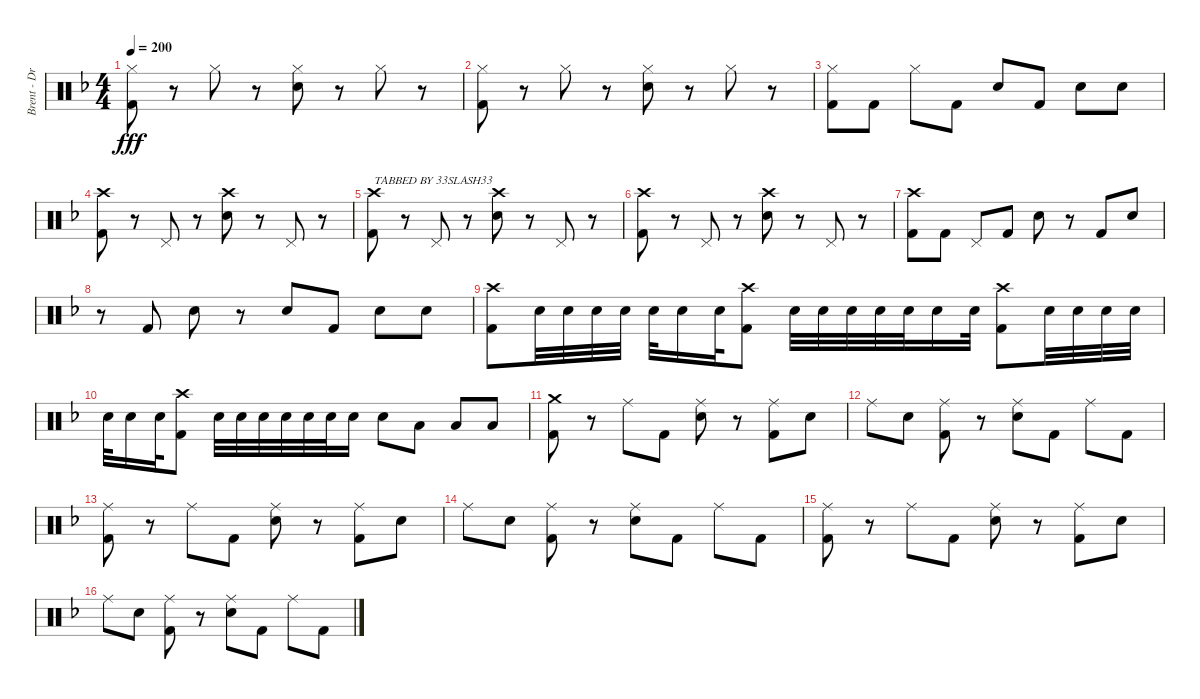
\track ("Brent - Drums" "Brent - Dr") {instrument percussion}
\staff {score}
\articulation defaults
\ts (4 4)
\tempo 200
\clef neutral
\ks dminor
("Hi-Hat (closed)" "Kick (hit) 2").8{dy fff} r.8 "Hi-Hat (closed)".8 r.8 ("Hi-Hat (closed)" "Snare (hit) 2").8 r.8 "Hi-Hat (closed)".8 r.8 |
("Hi-Hat (closed)" "Kick (hit) 2").8 r.8 "Hi-Hat (closed)".8 r.8 ("Hi-Hat (closed)" "Snare (hit) 2").8 r.8 "Hi-Hat (closed)".8 r.8 |
("Hi-Hat (closed)" "Kick (hit) 2").8 "Kick (hit) 2".8 "Hi-Hat (closed)".8 "Kick (hit) 2".8 "Snare (hit) 2".8 "Kick (hit) 2".8 "Snare (hit) 2".8 "Snare (hit) 2".8 |
("Crash high (hit)" "Kick (hit) 2").8 r.8 "Pedal Hi-Hat (hit)".8 r.8 ("Crash high (hit)" "Snare (hit) 2").8 r.8 "Pedal Hi-Hat (hit)".8 r.8 |
("Crash high (hit)" "Kick (hit) 2").8{txt "TABBED BY 33SLASH33"} r.8 "Pedal Hi-Hat (hit)".8 r.8 ("Crash high (hit)" "Snare (hit) 2").8 r.8 "Pedal Hi-Hat (hit)".8 r.8 |
("Crash high (hit)" "Kick (hit) 2").8 r.8 "Pedal Hi-Hat (hit)".8 r.8 ("Crash high (hit)" "Snare (hit) 2").8 r.8 "Pedal Hi-Hat (hit)".8 r.8 |
("Crash high (hit)" "Kick (hit) 2").8 "Kick (hit) 2".8 "Pedal Hi-Hat (hit)".8 "Kick (hit) 2".8 "Snare (hit) 2".8 r.8 "Kick (hit) 2".8 "Snare (hit) 2".8 |
r.8 "Kick (hit) 2".8 "Snare (hit) 2".8 r.8 "Snare (hit) 2".8 "Kick (hit) 2".8 "Snare (hit) 2".8 "Snare (hit) 2".8 |
("Crash high (hit)" "Kick (hit) 2").8 "Snare (hit) 2".32 "Snare (hit) 2".32 "Snare (hit) 2".32 "Snare (hit) 2".32 "Snare (hit) 2".32 "Snare (hit) 2".16 "Snare (hit) 2".32 ("Crash high (hit)" "Kick (hit) 2").8 "Snare (hit) 2".32 "Snare (hit) 2".32 "Snare (hit) 2".32 "Snare (hit) 2".32 "Snare (hit) 2".32 "Snare (hit) 2".16 "Snare (hit) 2".32 ("Crash high (hit)" "Kick (hit) 2").8 "Snare (hit) 2".32 "Snare (hit) 2".32 "Snare (hit) 2".32 "Snare (hit) 2".32 |
"Snare (hit) 2".32 "Snare (hit) 2".16 "Snare (hit) 2".32 ("Crash high (hit)" "Kick (hit) 2").8 "Snare (hit) 2".32 "Snare (hit) 2".32 "Snare (hit) 2".32 "Snare (hit) 2".32 "Snare (hit) 2".32 "Snare (hit) 2".32 "Snare (hit) 2".16 "Snare (hit) 2".8 "Low Tom (hit)".8 "Low Floor Tom (hit)".8 "Low Floor Tom (hit)".8 |
("Crash medium (hit)" "Kick (hit) 2").8 r.8 "Ride (middle)".8 "Kick (hit) 2".8 ("Ride (middle)" "Snare (hit) 2").8 r.8 ("Ride (middle)" "Kick (hit) 2").8 "Snare (hit) 2".8 |
"Ride (middle)".8 "Snare (hit) 2".8 ("Ride (middle)" "Kick (hit) 2").8 r.8 ("Ride (middle)" "Snare (hit) 2").8 "Kick (hit) 2".8 "Ride (middle)".8 "Kick (hit) 2".8 |
("Ride (middle)" "Kick (hit) 2").8 r.8 "Ride (middle)".8 "Kick (hit) 2".8 ("Ride (middle)" "Snare (hit) 2").8 r.8 ("Ride (middle)" "Kick (hit) 2").8 "Snare (hit) 2".8 |
"Ride (middle)".8 "Snare (hit) 2".8 ("Ride (middle)" "Kick (hit) 2").8 r.8 ("Ride (middle)" "Snare (hit) 2").8 "Kick (hit) 2".8 "Ride (middle)".8 "Kick (hit) 2".8 |
("Ride (middle)" "Kick (hit) 2").8 r.8 "Ride (middle)".8 "Kick (hit) 2".8 ("Ride (middle)" "Snare (hit) 2").8 r.8 ("Ride (middle)" "Kick (hit) 2").8 "Snare (hit) 2".8 |
"Ride (middle)".8 "Snare (hit) 2".8 ("Ride (middle)" "Kick (hit) 2").8 r.8 ("Ride (middle)" "Snare (hit) 2").8 "Kick (hit) 2".8 "Ride (middle)".8 "Kick (hit) 2".8
